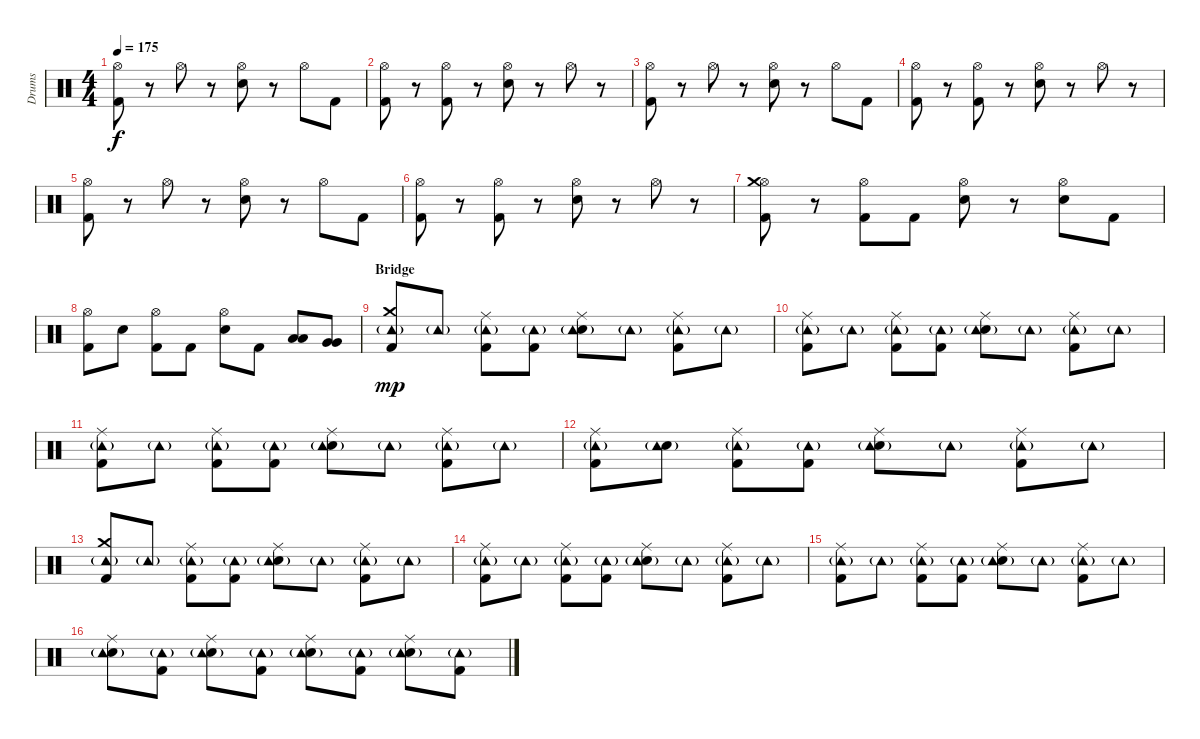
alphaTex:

\track ("Drums" "Drums") {instrument percussion}
\staff {score}
\articulation defaults
\ts (4 4)
\tempo 175
\clef neutral
\ks c
("Kick (hit) 2" "Hi-Hat (open)").8{dy f} r.8 "Hi-Hat (open)".8 r.8 ("Electric Snare (hit)" "Hi-Hat (open)").8 r.8 "Hi-Hat (open)".8 "Kick (hit) 2".8 |
("Kick (hit) 2" "Hi-Hat (open)").8 r.8 ("Kick (hit) 2" "Hi-Hat (open)").8 r.8 ("Electric Snare (hit)" "Hi-Hat (open)").8 r.8 "Hi-Hat (open)".8 r.8 |
("Kick (hit) 2" "Hi-Hat (open)").8 r.8 "Hi-Hat (open)".8 r.8 ("Electric Snare (hit)" "Hi-Hat (open)").8 r.8 "Hi-Hat (open)".8 "Kick (hit) 2".8 |
("Kick (hit) 2" "Hi-Hat (open)").8 r.8 ("Kick (hit) 2" "Hi-Hat (open)").8 r.8 ("Electric Snare (hit)" "Hi-Hat (open)").8 r.8 "Hi-Hat (open)".8 r.8 |
("Kick (hit) 2" "Hi-Hat (open)").8 r.8 "Hi-Hat (open)".8 r.8 ("Electric Snare (hit)" "Hi-Hat (open)").8 r.8 "Hi-Hat (open)".8 "Kick (hit) 2".8 |
("Kick (hit) 2" "Hi-Hat (open)").8 r.8 ("Kick (hit) 2" "Hi-Hat (open)").8 r.8 ("Electric Snare (hit)" "Hi-Hat (open)").8 r.8 "Hi-Hat (open)".8 r.8 |
("Kick (hit) 2" "Hi-Hat (open)" "Crash medium (hit)").8 r.8 ("Kick (hit) 2" "Hi-Hat (open)").8 "Kick (hit) 2".8 ("Electric Snare (hit)" "Hi-Hat (open)").8 r.8 ("Electric Snare (hit)" "Hi-Hat (open)").8 "Kick (hit) 2".8 |
("Kick (hit) 2" "Hi-Hat (open)").8 "Electric Snare (hit)".8 ("Kick (hit) 2" "Hi-Hat (open)").8 "Kick (hit) 2".8 ("Electric Snare (hit)" "Hi-Hat (open)").8 "Kick (hit) 2".8 ("Low Tom (hit)" "Low Tom (hit)").8 ("Very Low Tom (hit)" "Very Low Tom (hit)").8 |
\section ("" "Bridge")
("Kick (hit) 2" "Crash medium (hit)" "Tambourine (hit)"{g}).8{dy mp} "Tambourine (hit)"{g}.8 ("Kick (hit) 2" "Ride (middle)" "Tambourine (hit)"{g}).8 ("Kick (hit) 2" "Tambourine (hit)"{g}).8 ("Electric Snare (hit)" "Ride (middle)" "Tambourine (hit)"{g}).8 "Tambourine (hit)"{g}.8 ("Kick (hit) 2" "Ride (middle)" "Tambourine (hit)"{g}).8 "Tambourine (hit)"{g}.8 |
("Kick (hit) 2" "Ride (middle)" "Tambourine (hit)"{g}).8 "Tambourine (hit)"{g}.8 ("Kick (hit) 2" "Ride (middle)" "Tambourine (hit)"{g}).8 ("Kick (hit) 2" "Tambourine (hit)"{g}).8 ("Electric Snare (hit)" "Ride (middle)" "Tambourine (hit)"{g}).8 "Tambourine (hit)"{g}.8 ("Kick (hit) 2" "Ride (middle)" "Tambourine (hit)"{g}).8 "Tambourine (hit)"{g}.8 |
("Kick (hit) 2" "Ride (middle)" "Tambourine (hit)"{g}).8 "Tambourine (hit)"{g}.8 ("Kick (hit) 2" "Ride (middle)" "Tambourine (hit)"{g}).8 ("Kick (hit) 2" "Tambourine (hit)"{g}).8 ("Electric Snare (hit)" "Ride (middle)" "Tambourine (hit)"{g}).8 "Tambourine (hit)"{g}.8 ("Kick (hit) 2" "Ride (middle)" "Tambourine (hit)"{g}).8 "Tambourine (hit)"{g}.8 |
("Kick (hit) 2" "Ride (middle)" "Tambourine (hit)"{g}).8 ("Electric Snare (hit)" "Tambourine (hit)"{g}).8 ("Kick (hit) 2" "Ride (middle)" "Tambourine (hit)"{g}).8 ("Kick (hit) 2" "Tambourine (hit)"{g}).8 ("Electric Snare (hit)" "Ride (middle)" "Tambourine (hit)"{g}).8 "Tambourine (hit)"{g}.8 ("Kick (hit) 2" "Ride (middle)" "Tambourine (hit)"{g}).8 "Tambourine (hit)"{g}.8 |
("Kick (hit) 2" "Crash medium (hit)" "Tambourine (hit)"{g}).8 "Tambourine (hit)"{g}.8 ("Kick (hit) 2" "Ride (middle)" "Tambourine (hit)"{g}).8 ("Kick (hit) 2" "Tambourine (hit)"{g}).8 ("Electric Snare (hit)" "Ride (middle)" "Tambourine (hit)"{g}).8 "Tambourine (hit)"{g}.8 ("Kick (hit) 2" "Ride (middle)" "Tambourine (hit)"{g}).8 "Tambourine (hit)"{g}.8 |
("Kick (hit) 2" "Ride (middle)" "Tambourine (hit)"{g}).8 "Tambourine (hit)"{g}.8 ("Kick (hit) 2" "Ride (middle)" "Tambourine (hit)"{g}).8 ("Kick (hit) 2" "Tambourine (hit)"{g}).8 ("Electric Snare (hit)" "Ride (middle)" "Tambourine (hit)"{g}).8 "Tambourine (hit)"{g}.8 ("Kick (hit) 2" "Ride (middle)" "Tambourine (hit)"{g}).8 "Tambourine (hit)"{g}.8 |
("Kick (hit) 2" "Ride (middle)" "Tambourine (hit)"{g}).8 "Tambourine (hit)"{g}.8 ("Kick (hit) 2" "Ride (middle)" "Tambourine (hit)"{g}).8 ("Kick (hit) 2" "Tambourine (hit)"{g}).8 ("Electric Snare (hit)" "Ride (middle)" "Tambourine (hit)"{g}).8 "Tambourine (hit)"{g}.8 ("Kick (hit) 2" "Ride (middle)" "Tambourine (hit)"{g}).8 "Tambourine (hit)"{g}.8 |
("Electric Snare (hit)" "Ride (middle)" "Tambourine (hit)"{g}).8 ("Kick (hit) 2" "Tambourine (hit)"{g}).8 ("Electric Snare (hit)" "Ride (middle)" "Tambourine (hit)"{g}).8 ("Kick (hit) 2" "Tambourine (hit)"{g}).8 ("Electric Snare (hit)" "Ride (middle)" "Tambourine (hit)"{g}).8 ("Kick (hit) 2" "Tambourine (hit)"{g}).8 ("Electric Snare (hit)" "Ride (middle)" "Tambourine (hit)"{g}).8 ("Kick (hit) 2" "Tambourine (hit)"{g}).8
